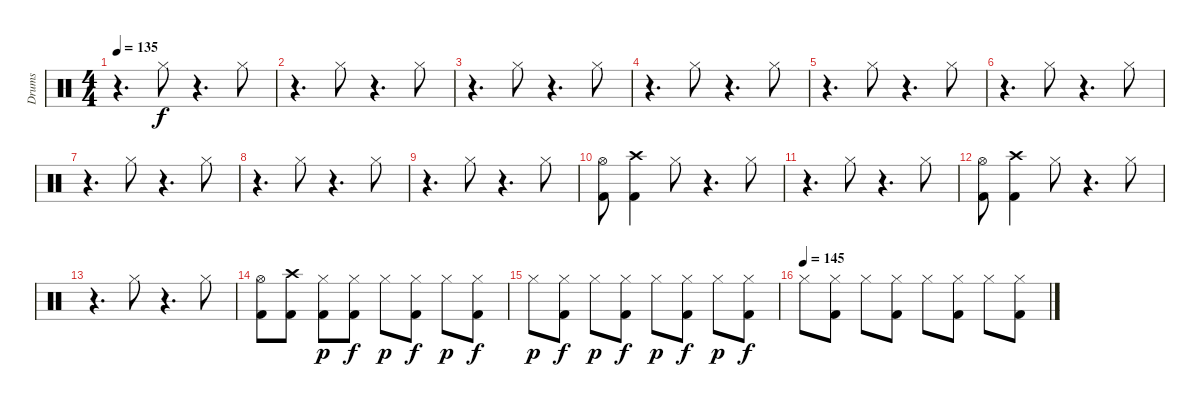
\track ("Drums" "Drums") {instrument percussion}
\staff {score}
\articulation defaults
\ts (4 4)
\tempo 135
\clef neutral
\ks c
r.4{d dy f} "Hi-Hat (closed)".8 r.4{d} "Hi-Hat (closed)".8 |
r.4{d} "Hi-Hat (closed)".8 r.4{d} "Hi-Hat (closed)".8 |
r.4{d} "Hi-Hat (closed)".8 r.4{d} "Hi-Hat (closed)".8 |
r.4{d} "Hi-Hat (closed)".8 r.4{d} "Hi-Hat (closed)".8 |
r.4{d} "Hi-Hat (closed)".8 r.4{d} "Hi-Hat (closed)".8 |
r.4{d} "Hi-Hat (closed)".8 r.4{d} "Hi-Hat (closed)".8 |
r.4{d} "Hi-Hat (closed)".8 r.4{d} "Hi-Hat (closed)".8 |
r.4{d} "Hi-Hat (closed)".8 r.4{d} "Hi-Hat (closed)".8 |
r.4{d} "Hi-Hat (closed)".8 r.4{d} "Hi-Hat (closed)".8 |
("Hi-Hat (open)" "Kick (hit) 2").8 ("Crash high (hit)" "Kick (hit) 2").4 "Hi-Hat (closed)".8 r.4{d} "Hi-Hat (closed)".8 |
r.4{d} "Hi-Hat (closed)".8 r.4{d} "Hi-Hat (closed)".8 |
("Hi-Hat (open)" "Kick (hit) 2").8 ("Crash high (hit)" "Kick (hit) 2").4 "Hi-Hat (closed)".8 r.4{d} "Hi-Hat (closed)".8 |
r.4{d} "Hi-Hat (closed)".8 r.4{d} "Hi-Hat (closed)".8 |
("Hi-Hat (open)" "Kick (hit) 2").8 ("Crash high (hit)" "Kick (hit) 2").8 ("Hi-Hat (closed)" "Kick (hit) 2").8{dy p} ("Hi-Hat (closed)" "Kick (hit) 2").8{dy f} "Hi-Hat (closed)".8{dy p} ("Hi-Hat (closed)" "Kick (hit) 2").8{dy f} "Hi-Hat (closed)".8{dy p} ("Hi-Hat (closed)" "Kick (hit) 2").8{dy f} |
"Hi-Hat (closed)".8{dy p} ("Hi-Hat (closed)" "Kick (hit) 2").8{dy f} "Hi-Hat (closed)".8{dy p} ("Hi-Hat (closed)" "Kick (hit) 2").8{dy f} "Hi-Hat (closed)".8{dy p} ("Hi-Hat (closed)" "Kick (hit) 2").8{dy f} "Hi-Hat (closed)".8{dy p} ("Hi-Hat (closed)" "Kick (hit) 2").8{dy f} |
\tempo (145)
"Hi-Hat (closed)".8 ("Hi-Hat (closed)" "Kick (hit) 2").8 "Hi-Hat (closed)".8 ("Hi-Hat (closed)" "Kick (hit) 2").8 "Hi-Hat (closed)".8 ("Hi-Hat (closed)" "Kick (hit) 2").8 "Hi-Hat (closed)".8 ("Hi-Hat (closed)" "Kick (hit) 2").8
